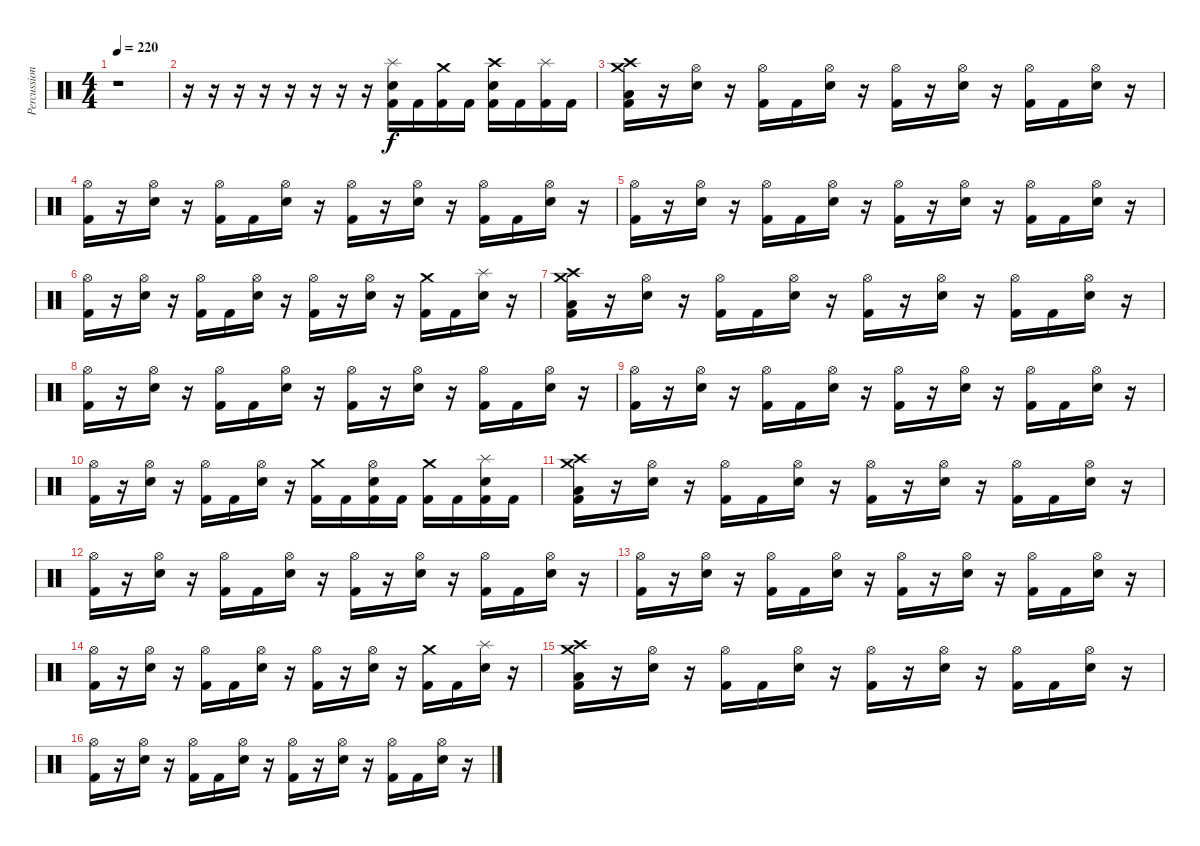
\track ("Percussion" "Percussion") {instrument percussion}
\staff {score}
\articulation defaults
\ts (4 4)
\tempo 220
\clef neutral
\ks c
r.1{dy f} |
r.16 r.16 r.16 r.16 r.16 r.16 r.16 r.16 ("Splash (hit)" "Electric Snare (hit)" "Kick (hit) 2").16 "Kick (hit) 2".16 ("Crash medium (hit)" "Kick (hit) 2").16 "Kick (hit) 2".16 ("Crash high (hit)" "Electric Snare (hit)" "Kick (hit) 2").16 "Kick (hit) 2".16 ("Splash (hit)" "Kick (hit) 2").16 "Kick (hit) 2".16 |
("Crash medium (hit)" "Crash high (hit)" "Low Floor Tom (hit)" "Kick (hit) 2").16 r.16 ("Hi-Hat (open)" "Electric Snare (hit)").16 r.16 ("Hi-Hat (open)" "Kick (hit) 2").16 "Kick (hit) 2".16 ("Hi-Hat (open)" "Electric Snare (hit)").16 r.16 ("Hi-Hat (open)" "Kick (hit) 2").16 r.16 ("Hi-Hat (open)" "Electric Snare (hit)").16 r.16 ("Hi-Hat (open)" "Kick (hit) 2").16 "Kick (hit) 2".16 ("Hi-Hat (open)" "Electric Snare (hit)").16 r.16 |
("Hi-Hat (open)" "Kick (hit) 2").16 r.16 ("Hi-Hat (open)" "Electric Snare (hit)").16 r.16 ("Hi-Hat (open)" "Kick (hit) 2").16 "Kick (hit) 2".16 ("Hi-Hat (open)" "Electric Snare (hit)").16 r.16 ("Hi-Hat (open)" "Kick (hit) 2").16 r.16 ("Hi-Hat (open)" "Electric Snare (hit)").16 r.16 ("Hi-Hat (open)" "Kick (hit) 2").16 "Kick (hit) 2".16 ("Hi-Hat (open)" "Electric Snare (hit)").16 r.16 |
("Hi-Hat (open)" "Kick (hit) 2").16 r.16 ("Hi-Hat (open)" "Electric Snare (hit)").16 r.16 ("Hi-Hat (open)" "Kick (hit) 2").16 "Kick (hit) 2".16 ("Hi-Hat (open)" "Electric Snare (hit)").16 r.16 ("Hi-Hat (open)" "Kick (hit) 2").16 r.16 ("Hi-Hat (open)" "Electric Snare (hit)").16 r.16 ("Hi-Hat (open)" "Kick (hit) 2").16 "Kick (hit) 2".16 ("Hi-Hat (open)" "Electric Snare (hit)").16 r.16 |
("Hi-Hat (open)" "Kick (hit) 2").16 r.16 ("Hi-Hat (open)" "Electric Snare (hit)").16 r.16 ("Hi-Hat (open)" "Kick (hit) 2").16 "Kick (hit) 2".16 ("Hi-Hat (open)" "Electric Snare (hit)").16 r.16 ("Hi-Hat (open)" "Kick (hit) 2").16 r.16 ("Hi-Hat (open)" "Electric Snare (hit)").16 r.16 ("Crash medium (hit)" "Kick (hit) 2").16 "Kick (hit) 2".16 ("Splash (hit)" "Electric Snare (hit)").16 r.16 |
("Crash medium (hit)" "Crash high (hit)" "Low Floor Tom (hit)" "Kick (hit) 2").16 r.16 ("Hi-Hat (open)" "Electric Snare (hit)").16 r.16 ("Hi-Hat (open)" "Kick (hit) 2").16 "Kick (hit) 2".16 ("Hi-Hat (open)" "Electric Snare (hit)").16 r.16 ("Hi-Hat (open)" "Kick (hit) 2").16 r.16 ("Hi-Hat (open)" "Electric Snare (hit)").16 r.16 ("Hi-Hat (open)" "Kick (hit) 2").16 "Kick (hit) 2".16 ("Hi-Hat (open)" "Electric Snare (hit)").16 r.16 |
("Hi-Hat (open)" "Kick (hit) 2").16 r.16 ("Hi-Hat (open)" "Electric Snare (hit)").16 r.16 ("Hi-Hat (open)" "Kick (hit) 2").16 "Kick (hit) 2".16 ("Hi-Hat (open)" "Electric Snare (hit)").16 r.16 ("Hi-Hat (open)" "Kick (hit) 2").16 r.16 ("Hi-Hat (open)" "Electric Snare (hit)").16 r.16 ("Hi-Hat (open)" "Kick (hit) 2").16 "Kick (hit) 2".16 ("Hi-Hat (open)" "Electric Snare (hit)").16 r.16 |
("Hi-Hat (open)" "Kick (hit) 2").16 r.16 ("Hi-Hat (open)" "Electric Snare (hit)").16 r.16 ("Hi-Hat (open)" "Kick (hit) 2").16 "Kick (hit) 2".16 ("Hi-Hat (open)" "Electric Snare (hit)").16 r.16 ("Hi-Hat (open)" "Kick (hit) 2").16 r.16 ("Hi-Hat (open)" "Electric Snare (hit)").16 r.16 ("Hi-Hat (open)" "Kick (hit) 2").16 "Kick (hit) 2".16 ("Hi-Hat (open)" "Electric Snare (hit)").16 r.16 |
("Hi-Hat (open)" "Kick (hit) 2").16 r.16 ("Hi-Hat (open)" "Electric Snare (hit)").16 r.16 ("Hi-Hat (open)" "Kick (hit) 2").16 "Kick (hit) 2".16 ("Hi-Hat (open)" "Electric Snare (hit)").16 r.16 ("Crash medium (hit)" "Kick (hit) 2").16 "Kick (hit) 2".16 ("Hi-Hat (open)" "Electric Snare (hit)" "Kick (hit) 2").16 "Kick (hit) 2".16 ("Crash medium (hit)" "Kick (hit) 2").16 "Kick (hit) 2".16 ("Splash (hit)" "Electric Snare (hit)" "Kick (hit) 2").16 "Kick (hit) 2".16 |
("Crash medium (hit)" "Crash high (hit)" "Low Floor Tom (hit)" "Kick (hit) 2").16 r.16 ("Hi-Hat (open)" "Electric Snare (hit)").16 r.16 ("Hi-Hat (open)" "Kick (hit) 2").16 "Kick (hit) 2".16 ("Hi-Hat (open)" "Electric Snare (hit)").16 r.16 ("Hi-Hat (open)" "Kick (hit) 2").16 r.16 ("Hi-Hat (open)" "Electric Snare (hit)").16 r.16 ("Hi-Hat (open)" "Kick (hit) 2").16 "Kick (hit) 2".16 ("Hi-Hat (open)" "Electric Snare (hit)").16 r.16 |
("Hi-Hat (open)" "Kick (hit) 2").16 r.16 ("Hi-Hat (open)" "Electric Snare (hit)").16 r.16 ("Hi-Hat (open)" "Kick (hit) 2").16 "Kick (hit) 2".16 ("Hi-Hat (open)" "Electric Snare (hit)").16 r.16 ("Hi-Hat (open)" "Kick (hit) 2").16 r.16 ("Hi-Hat (open)" "Electric Snare (hit)").16 r.16 ("Hi-Hat (open)" "Kick (hit) 2").16 "Kick (hit) 2".16 ("Hi-Hat (open)" "Electric Snare (hit)").16 r.16 |
("Hi-Hat (open)" "Kick (hit) 2").16 r.16 ("Hi-Hat (open)" "Electric Snare (hit)").16 r.16 ("Hi-Hat (open)" "Kick (hit) 2").16 "Kick (hit) 2".16 ("Hi-Hat (open)" "Electric Snare (hit)").16 r.16 ("Hi-Hat (open)" "Kick (hit) 2").16 r.16 ("Hi-Hat (open)" "Electric Snare (hit)").16 r.16 ("Hi-Hat (open)" "Kick (hit) 2").16 "Kick (hit) 2".16 ("Hi-Hat (open)" "Electric Snare (hit)").16 r.16 |
("Hi-Hat (open)" "Kick (hit) 2").16 r.16 ("Hi-Hat (open)" "Electric Snare (hit)").16 r.16 ("Hi-Hat (open)" "Kick (hit) 2").16 "Kick (hit) 2".16 ("Hi-Hat (open)" "Electric Snare (hit)").16 r.16 ("Hi-Hat (open)" "Kick (hit) 2").16 r.16 ("Hi-Hat (open)" "Electric Snare (hit)").16 r.16 ("Crash medium (hit)" "Kick (hit) 2").16 "Kick (hit) 2".16 ("Splash (hit)" "Electric Snare (hit)").16 r.16 |
("Crash medium (hit)" "Crash high (hit)" "Low Floor Tom (hit)" "Kick (hit) 2").16 r.16 ("Hi-Hat (open)" "Electric Snare (hit)").16 r.16 ("Hi-Hat (open)" "Kick (hit) 2").16 "Kick (hit) 2".16 ("Hi-Hat (open)" "Electric Snare (hit)").16 r.16 ("Hi-Hat (open)" "Kick (hit) 2").16 r.16 ("Hi-Hat (open)" "Electric Snare (hit)").16 r.16 ("Hi-Hat (open)" "Kick (hit) 2").16 "Kick (hit) 2".16 ("Hi-Hat (open)" "Electric Snare (hit)").16 r.16 |
("Hi-Hat (open)" "Kick (hit) 2").16 r.16 ("Hi-Hat (open)" "Electric Snare (hit)").16 r.16 ("Hi-Hat (open)" "Kick (hit) 2").16 "Kick (hit) 2".16 ("Hi-Hat (open)" "Electric Snare (hit)").16 r.16 ("Hi-Hat (open)" "Kick (hit) 2").16 r.16 ("Hi-Hat (open)" "Electric Snare (hit)").16 r.16 ("Hi-Hat (open)" "Kick (hit) 2").16 "Kick (hit) 2".16 ("Hi-Hat (open)" "Electric Snare (hit)").16 r.16
